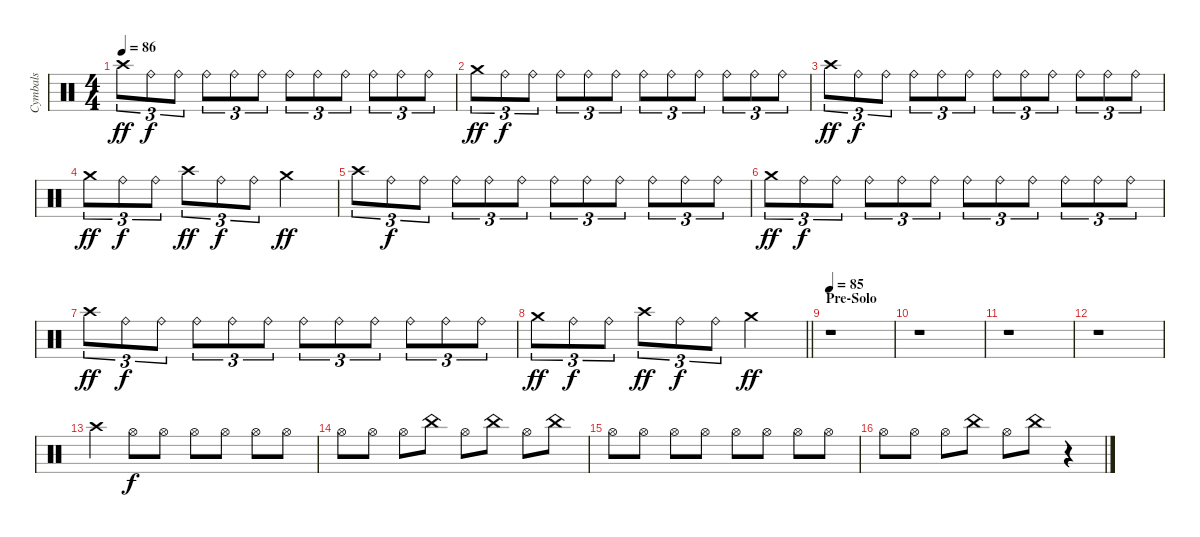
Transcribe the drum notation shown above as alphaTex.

\track ("Cymbals" "Cymbals") {instrument percussion}
\staff {score}
\articulation defaults
\ts (4 4)
\section ("" "")
\tempo 86
\clef neutral
\ks c "Crash high (hit)".8{tu (3 2) dy ff} "Ride (bell)".8{tu (3 2) dy f} "Ride (bell)".8{tu (3 2)} "Ride (bell)".8{tu (3 2)} "Ride (bell)".8{tu (3 2)} "Ride (bell)".8{tu (3 2)} "Ride (bell)".8{tu (3 2)} "Ride (bell)".8{tu (3 2)} "Ride (bell)".8{tu (3 2)} "Ride (bell)".8{tu (3 2)} "Ride (bell)".8{tu (3 2)} "Ride (bell)".8{tu (3 2)}
|
"Crash medium (hit)".8{tu (3 2) dy ff} "Ride (bell)".8{tu (3 2) dy f} "Ride (bell)".8{tu (3 2)} "Ride (bell)".8{tu (3 2)} "Ride (bell)".8{tu (3 2)} "Ride (bell)".8{tu (3 2)} "Ride (bell)".8{tu (3 2)} "Ride (bell)".8{tu (3 2)} "Ride (bell)".8{tu (3 2)} "Ride (bell)".8{tu (3 2)} "Ride (bell)".8{tu (3 2)} "Ride (bell)".8{tu (3 2)} |
"Crash high (hit)".8{tu (3 2) dy ff} "Ride (bell)".8{tu (3 2) dy f} "Ride (bell)".8{tu (3 2)} "Ride (bell)".8{tu (3 2)} "Ride (bell)".8{tu (3 2)} "Ride (bell)".8{tu (3 2)} "Ride (bell)".8{tu (3 2)} "Ride (bell)".8{tu (3 2)} "Ride (bell)".8{tu (3 2)} "Ride (bell)".8{tu (3 2)} "Ride (bell)".8{tu (3 2)} "Ride (bell)".8{tu (3 2)} |
"Crash medium (hit)".8{tu (3 2) dy ff} "Ride (bell)".8{tu (3 2) dy f} "Ride (bell)".8{tu (3 2)} "Crash high (hit)".8{tu (3 2) dy ff} "Ride (bell)".8{tu (3 2) dy f} "Ride (bell)".8{tu (3 2)} "Crash medium (hit)".2{dy ff} |
"Crash high (hit)".8{tu (3 2)} "Ride (bell)".8{tu (3 2) dy f} "Ride (bell)".8{tu (3 2)} "Ride (bell)".8{tu (3 2)} "Ride (bell)".8{tu (3 2)} "Ride (bell)".8{tu (3 2)} "Ride (bell)".8{tu (3 2)} "Ride (bell)".8{tu (3 2)} "Ride (bell)".8{tu (3 2)} "Ride (bell)".8{tu (3 2)} "Ride (bell)".8{tu (3 2)} "Ride (bell)".8{tu (3 2)} |
"Crash medium (hit)".8{tu (3 2) dy ff} "Ride (bell)".8{tu (3 2) dy f} "Ride (bell)".8{tu (3 2)} "Ride (bell)".8{tu (3 2)} "Ride (bell)".8{tu (3 2)} "Ride (bell)".8{tu (3 2)} "Ride (bell)".8{tu (3 2)} "Ride (bell)".8{tu (3 2)} "Ride (bell)".8{tu (3 2)} "Ride (bell)".8{tu (3 2)} "Ride (bell)".8{tu (3 2)} "Ride (bell)".8{tu (3 2)} |
"Crash high (hit)".8{tu (3 2) dy ff} "Ride (bell)".8{tu (3 2) dy f} "Ride (bell)".8{tu (3 2)} "Ride (bell)".8{tu (3 2)} "Ride (bell)".8{tu (3 2)} "Ride (bell)".8{tu (3 2)} "Ride (bell)".8{tu (3 2)} "Ride (bell)".8{tu (3 2)} "Ride (bell)".8{tu (3 2)} "Ride (bell)".8{tu (3 2)} "Ride (bell)".8{tu (3 2)} "Ride (bell)".8{tu (3 2)} |
\barLineRight lightlight "Crash medium (hit)".8{tu (3 2) dy ff} "Ride (bell)".8{tu (3 2) dy f} "Ride (bell)".8{tu (3 2)} "Crash high (hit)".8{tu (3 2) dy ff} "Ride (bell)".8{tu (3 2) dy f} "Ride (bell)".8{tu (3 2)} "Crash medium (hit)".2{dy ff}
|
\section ("" "Pre-Solo")
\tempo 85
r.1 |
r.1 |
r.1 |
r.1 |
"Crash high (hit)".4 "Hi-Hat (open)".8{dy f} "Hi-Hat (open)".8 "Hi-Hat (open)".8 "Hi-Hat (open)".8 "Hi-Hat (open)".8 "Hi-Hat (open)".8 |
"Hi-Hat (open)".8 "Hi-Hat (open)".8 "Hi-Hat (open)".8 "China (hit)".8 "Hi-Hat (open)".8 "China (hit)".8 "Hi-Hat (open)".8 "China (hit)".8 |
"Hi-Hat (open)".8 "Hi-Hat (open)".8 "Hi-Hat (open)".8 "Hi-Hat (open)".8 "Hi-Hat (open)".8 "Hi-Hat (open)".8 "Hi-Hat (open)".8 "Hi-Hat (open)".8 |
"Hi-Hat (open)".8 "Hi-Hat (open)".8 "Hi-Hat (open)".8 "China (hit)".8 "Hi-Hat (open)".8 "China (hit)".8 r.4
